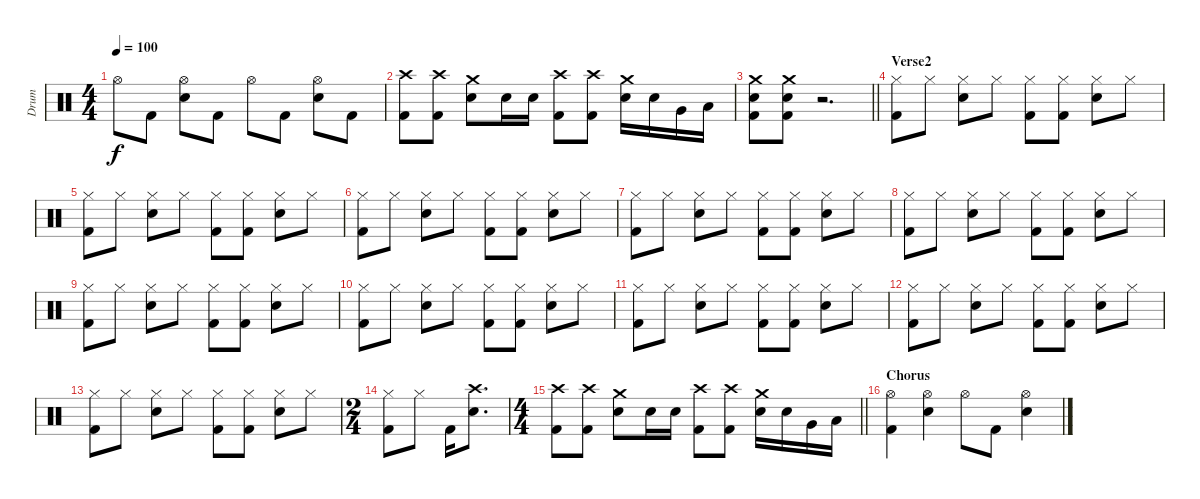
\track ("Drum" "Drum") {instrument percussion}
\staff {score}
\articulation defaults
\ts (4 4)
\tempo 100
\clef neutral
\ks c "Hi-Hat (open)".8{dy f} "Kick (hit) 2".8
("Hi-Hat (open)" "Electric Snare (hit)").8 "Kick (hit) 2".8 "Hi-Hat (open)".8 "Kick (hit) 2".8 ("Hi-Hat (open)" "Electric Snare (hit)").8 "Kick (hit) 2".8 |
("Crash high (hit)" "Kick (hit) 2").8 ("Crash high (hit)" "Kick (hit) 2").8 ("Crash medium (hit)" "Electric Snare (hit)").8 "Electric Snare (hit)".16 "Electric Snare (hit)".16 ("Crash high (hit)" "Kick (hit) 2").8 ("Crash high (hit)" "Kick (hit) 2").8 ("Crash medium (hit)" "Electric Snare (hit)").16 "Electric Snare (hit)".16 "Very Low Tom (hit)".16 "Low Floor Tom (hit)".16 |
\barLineRight lightlight
("Crash medium (hit)" "Electric Snare (hit)" "Kick (hit) 2").8 ("Crash medium (hit)" "Electric Snare (hit)" "Kick (hit) 2").8 r.2{d} |
\section ("" "Verse2")
("Hi-Hat (closed)" "Kick (hit) 2").8 "Hi-Hat (closed)".8 ("Hi-Hat (closed)" "Electric Snare (hit)").8 "Hi-Hat (closed)".8 ("Hi-Hat (closed)" "Kick (hit) 2").8 ("Hi-Hat (closed)" "Kick (hit) 2").8 ("Hi-Hat (closed)" "Electric Snare (hit)").8 "Hi-Hat (closed)".8 |
("Hi-Hat (closed)" "Kick (hit) 2").8 "Hi-Hat (closed)".8 ("Hi-Hat (closed)" "Electric Snare (hit)").8 "Hi-Hat (closed)".8 ("Hi-Hat (closed)" "Kick (hit) 2").8 ("Hi-Hat (closed)" "Kick (hit) 2").8 ("Hi-Hat (closed)" "Electric Snare (hit)").8 "Hi-Hat (closed)".8 |
("Hi-Hat (closed)" "Kick (hit) 2").8 "Hi-Hat (closed)".8 ("Hi-Hat (closed)" "Electric Snare (hit)").8 "Hi-Hat (closed)".8 ("Hi-Hat (closed)" "Kick (hit) 2").8 ("Hi-Hat (closed)" "Kick (hit) 2").8 ("Hi-Hat (closed)" "Electric Snare (hit)").8 "Hi-Hat (closed)".8 |
("Hi-Hat (closed)" "Kick (hit) 2").8 "Hi-Hat (closed)".8 ("Hi-Hat (closed)" "Electric Snare (hit)").8 "Hi-Hat (closed)".8 ("Hi-Hat (closed)" "Kick (hit) 2").8 ("Hi-Hat (closed)" "Kick (hit) 2").8 ("Hi-Hat (closed)" "Electric Snare (hit)").8 "Hi-Hat (closed)".8 |
("Hi-Hat (closed)" "Kick (hit) 2").8 "Hi-Hat (closed)".8 ("Hi-Hat (closed)" "Electric Snare (hit)").8 "Hi-Hat (closed)".8 ("Hi-Hat (closed)" "Kick (hit) 2").8 ("Hi-Hat (closed)" "Kick (hit) 2").8 ("Hi-Hat (closed)" "Electric Snare (hit)").8 "Hi-Hat (closed)".8 |
("Hi-Hat (closed)" "Kick (hit) 2").8 "Hi-Hat (closed)".8 ("Hi-Hat (closed)" "Electric Snare (hit)").8 "Hi-Hat (closed)".8 ("Hi-Hat (closed)" "Kick (hit) 2").8 ("Hi-Hat (closed)" "Kick (hit) 2").8 ("Hi-Hat (closed)" "Electric Snare (hit)").8 "Hi-Hat (closed)".8 |
("Hi-Hat (closed)" "Kick (hit) 2").8 "Hi-Hat (closed)".8 ("Hi-Hat (closed)" "Electric Snare (hit)").8 "Hi-Hat (closed)".8 ("Hi-Hat (closed)" "Kick (hit) 2").8 ("Hi-Hat (closed)" "Kick (hit) 2").8 ("Hi-Hat (closed)" "Electric Snare (hit)").8 "Hi-Hat (closed)".8 |
("Hi-Hat (closed)" "Kick (hit) 2").8 "Hi-Hat (closed)".8 ("Hi-Hat (closed)" "Electric Snare (hit)").8 "Hi-Hat (closed)".8 ("Hi-Hat (closed)" "Kick (hit) 2").8 ("Hi-Hat (closed)" "Kick (hit) 2").8 ("Hi-Hat (closed)" "Electric Snare (hit)").8 "Hi-Hat (closed)".8 |
("Hi-Hat (closed)" "Kick (hit) 2").8 "Hi-Hat (closed)".8 ("Hi-Hat (closed)" "Electric Snare (hit)").8 "Hi-Hat (closed)".8 ("Hi-Hat (closed)" "Kick (hit) 2").8 ("Hi-Hat (closed)" "Kick (hit) 2").8 ("Hi-Hat (closed)" "Electric Snare (hit)").8 "Hi-Hat (closed)".8 |
("Hi-Hat (closed)" "Kick (hit) 2").8 "Hi-Hat (closed)".8 ("Hi-Hat (closed)" "Electric Snare (hit)").8 "Hi-Hat (closed)".8 ("Hi-Hat (closed)" "Kick (hit) 2").8 ("Hi-Hat (closed)" "Kick (hit) 2").8 ("Hi-Hat (closed)" "Electric Snare (hit)").8 "Hi-Hat (closed)".8 |
\ts (2 4)
("Hi-Hat (closed)" "Kick (hit) 2").8 "Hi-Hat (closed)".8 "Kick (hit) 2".16 ("Crash high (hit)" "Electric Snare (hit)").8{d} |
\ts (4 4)
\barLineRight lightlight
("Crash high (hit)" "Kick (hit) 2").8 ("Crash high (hit)" "Kick (hit) 2").8 ("Crash medium (hit)" "Electric Snare (hit)").8 "Electric Snare (hit)".16 "Electric Snare (hit)".16 ("Crash high (hit)" "Kick (hit) 2").8 ("Crash high (hit)" "Kick (hit) 2").8 ("Crash medium (hit)" "Electric Snare (hit)").16 "Electric Snare (hit)".16 "Very Low Tom (hit)".16 "Low Floor Tom (hit)".16 |
\section ("" "Chorus")
("Hi-Hat (open)" "Kick (hit) 2").4 ("Hi-Hat (open)" "Electric Snare (hit)").4 "Hi-Hat (open)".8 "Kick (hit) 2".8 ("Hi-Hat (open)" "Electric Snare (hit)").4
